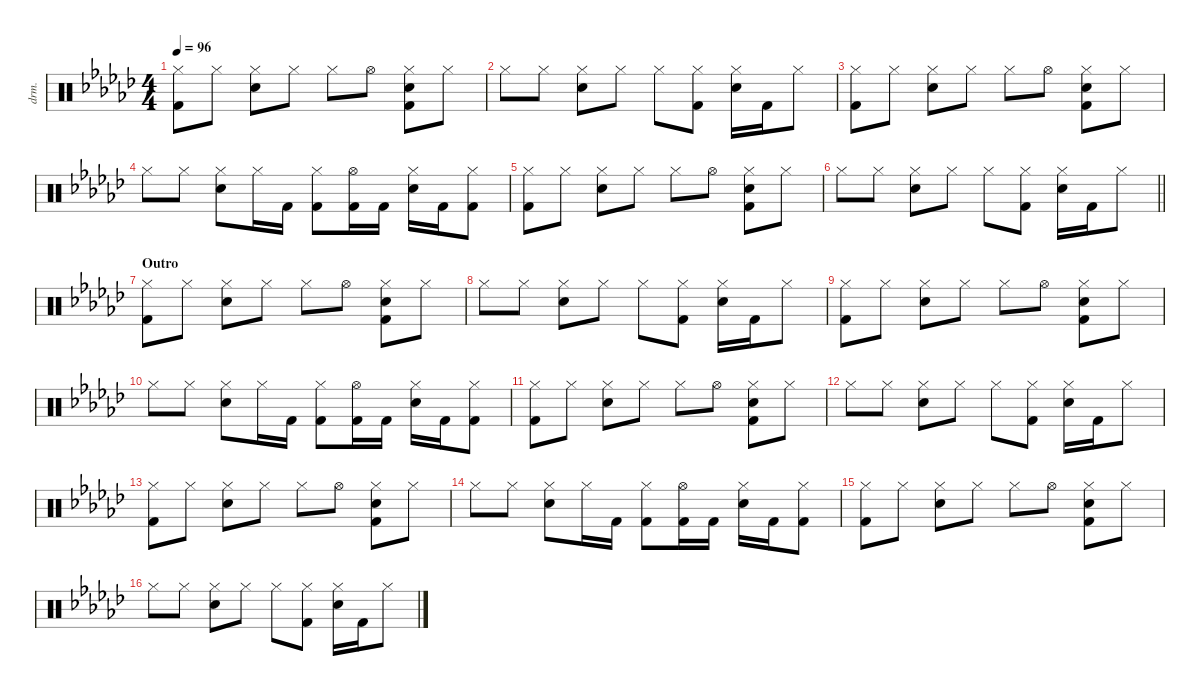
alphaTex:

\defaultSystemsLayout 4
\hideDynamics
\bracketExtendMode nobrackets
\otherSystemsTrackNameOrientation horizontal
\track ("Percussion" "drm.") {instrument percussion}
\staff {score}
\articulation defaults
\ts (4 4)
\tempo 96
\clef neutral
\ks gb
("Hi-Hat (closed)"{acc forcenatural} "Kick (hit) 2"{acc forcenatural}).8{dy f beam Down} "Hi-Hat (closed)"{acc forcenatural}.8{beam Down} ("Hi-Hat (closed)"{acc forcenatural} "Snare (hit) 2"{acc forcenatural}).8{beam Down} "Hi-Hat (closed)"{acc forcenatural}.8{beam Down} "Hi-Hat (closed)"{acc forcenatural}.8{beam Down} "Hi-Hat (open)"{acc forcenatural}.8{beam Down} ("Hi-Hat (closed)"{acc forcenatural} "Snare (hit) 2"{acc forcenatural} "Kick (hit) 2"{acc forcenatural}).8{beam Down} "Hi-Hat (closed)"{acc forcenatural}.8{beam Down} |
"Hi-Hat (closed)"{acc forcenatural}.8{beam Down} "Hi-Hat (closed)"{acc forcenatural}.8{beam Down} ("Hi-Hat (closed)"{acc forcenatural} "Snare (hit) 2"{acc forcenatural}).8{beam Down} "Hi-Hat (closed)"{acc forcenatural}.8{beam Down} "Hi-Hat (closed)"{acc forcenatural}.8{beam Down} ("Hi-Hat (closed)"{acc forcenatural} "Kick (hit) 2"{acc forcenatural}).8{beam Down} ("Hi-Hat (closed)"{acc forcenatural} "Snare (hit) 2"{acc forcenatural}).16{beam Down} "Kick (hit) 2"{acc forcenatural}.16{beam Down} "Hi-Hat (closed)"{acc forcenatural}.8{beam Down} |
("Hi-Hat (closed)"{acc forcenatural} "Kick (hit) 2"{acc forcenatural}).8{beam Down} "Hi-Hat (closed)"{acc forcenatural}.8{beam Down} ("Hi-Hat (closed)"{acc forcenatural} "Snare (hit) 2"{acc forcenatural}).8{beam Down} "Hi-Hat (closed)"{acc forcenatural}.8{beam Down} "Hi-Hat (closed)"{acc forcenatural}.8{beam Down} "Hi-Hat (open)"{acc forcenatural}.8{beam Down} ("Hi-Hat (closed)"{acc forcenatural} "Snare (hit) 2"{acc forcenatural} "Kick (hit) 2"{acc forcenatural}).8{beam Down} "Hi-Hat (closed)"{acc forcenatural}.8{beam Down} |
"Hi-Hat (closed)"{acc forcenatural}.8{beam Down} "Hi-Hat (closed)"{acc forcenatural}.8{beam Down} ("Hi-Hat (closed)"{acc forcenatural} "Snare (hit) 2"{acc forcenatural}).8{beam Down} "Hi-Hat (closed)"{acc forcenatural}.16{beam Down} "Kick (hit) 2"{acc forcenatural}.16{beam Down} ("Hi-Hat (closed)"{acc forcenatural} "Kick (hit) 2"{acc forcenatural}).8{beam Down} ("Hi-Hat (open)"{acc forcenatural} "Kick (hit) 2"{acc forcenatural}).16{beam Down} "Kick (hit) 2"{acc forcenatural}.16{beam Down} ("Hi-Hat (closed)"{acc forcenatural} "Snare (hit) 2"{acc forcenatural}).16{beam Down} "Kick (hit) 2"{acc forcenatural}.16{beam Down} ("Hi-Hat (closed)"{acc forcenatural} "Kick (hit) 2"{acc forcenatural}).8{beam Down} |
("Hi-Hat (closed)"{acc forcenatural} "Kick (hit) 2"{acc forcenatural}).8{beam Down} "Hi-Hat (closed)"{acc forcenatural}.8{beam Down} ("Hi-Hat (closed)"{acc forcenatural} "Snare (hit) 2"{acc forcenatural}).8{beam Down} "Hi-Hat (closed)"{acc forcenatural}.8{beam Down} "Hi-Hat (closed)"{acc forcenatural}.8{beam Down} "Hi-Hat (open)"{acc forcenatural}.8{beam Down} ("Hi-Hat (closed)"{acc forcenatural} "Snare (hit) 2"{acc forcenatural} "Kick (hit) 2"{acc forcenatural}).8{beam Down} "Hi-Hat (closed)"{acc forcenatural}.8{beam Down} |
\barLineRight lightlight "Hi-Hat (closed)"{acc forcenatural}.8{beam Down} "Hi-Hat (closed)"{acc forcenatural}.8{beam Down}
("Hi-Hat (closed)"{acc forcenatural} "Snare (hit) 2"{acc forcenatural}).8{beam Down} "Hi-Hat (closed)"{acc forcenatural}.8{beam Down} "Hi-Hat (closed)"{acc forcenatural}.8{beam Down} ("Hi-Hat (closed)"{acc forcenatural} "Kick (hit) 2"{acc forcenatural}).8{beam Down} ("Hi-Hat (closed)"{acc forcenatural} "Snare (hit) 2"{acc forcenatural}).16{beam Down} "Kick (hit) 2"{acc forcenatural}.16{beam Down} "Hi-Hat (closed)"{acc forcenatural}.8{beam Down} |
\section ("" "Outro")
("Hi-Hat (closed)"{acc forcenatural} "Kick (hit) 2"{acc forcenatural}).8{beam Down} "Hi-Hat (closed)"{acc forcenatural}.8{beam Down} ("Hi-Hat (closed)"{acc forcenatural} "Snare (hit) 2"{acc forcenatural}).8{beam Down} "Hi-Hat (closed)"{acc forcenatural}.8{beam Down} "Hi-Hat (closed)"{acc forcenatural}.8{beam Down} "Hi-Hat (open)"{acc forcenatural}.8{beam Down} ("Hi-Hat (closed)"{acc forcenatural} "Snare (hit) 2"{acc forcenatural} "Kick (hit) 2"{acc forcenatural}).8{beam Down} "Hi-Hat (closed)"{acc forcenatural}.8{beam Down} |
"Hi-Hat (closed)"{acc forcenatural}.8{beam Down} "Hi-Hat (closed)"{acc forcenatural}.8{beam Down} ("Hi-Hat (closed)"{acc forcenatural} "Snare (hit) 2"{acc forcenatural}).8{beam Down} "Hi-Hat (closed)"{acc forcenatural}.8{beam Down} "Hi-Hat (closed)"{acc forcenatural}.8{beam Down} ("Hi-Hat (closed)"{acc forcenatural} "Kick (hit) 2"{acc forcenatural}).8{beam Down} ("Hi-Hat (closed)"{acc forcenatural} "Snare (hit) 2"{acc forcenatural}).16{beam Down} "Kick (hit) 2"{acc forcenatural}.16{beam Down} "Hi-Hat (closed)"{acc forcenatural}.8{beam Down} |
("Hi-Hat (closed)"{acc forcenatural} "Kick (hit) 2"{acc forcenatural}).8{beam Down} "Hi-Hat (closed)"{acc forcenatural}.8{beam Down} ("Hi-Hat (closed)"{acc forcenatural} "Snare (hit) 2"{acc forcenatural}).8{beam Down} "Hi-Hat (closed)"{acc forcenatural}.8{beam Down} "Hi-Hat (closed)"{acc forcenatural}.8{beam Down} "Hi-Hat (open)"{acc forcenatural}.8{beam Down} ("Hi-Hat (closed)"{acc forcenatural} "Snare (hit) 2"{acc forcenatural} "Kick (hit) 2"{acc forcenatural}).8{beam Down} "Hi-Hat (closed)"{acc forcenatural}.8{beam Down} |
"Hi-Hat (closed)"{acc forcenatural}.8{beam Down} "Hi-Hat (closed)"{acc forcenatural}.8{beam Down} ("Hi-Hat (closed)"{acc forcenatural} "Snare (hit) 2"{acc forcenatural}).8{beam Down} "Hi-Hat (closed)"{acc forcenatural}.16{beam Down} "Kick (hit) 2"{acc forcenatural}.16{beam Down} ("Hi-Hat (closed)"{acc forcenatural} "Kick (hit) 2"{acc forcenatural}).8{beam Down} ("Hi-Hat (open)"{acc forcenatural} "Kick (hit) 2"{acc forcenatural}).16{beam Down} "Kick (hit) 2"{acc forcenatural}.16{beam Down} ("Hi-Hat (closed)"{acc forcenatural} "Snare (hit) 2"{acc forcenatural}).16{beam Down} "Kick (hit) 2"{acc forcenatural}.16{beam Down} ("Hi-Hat (closed)"{acc forcenatural} "Kick (hit) 2"{acc forcenatural}).8{beam Down} |
("Hi-Hat (closed)"{acc forcenatural} "Kick (hit) 2"{acc forcenatural}).8{beam Down} "Hi-Hat (closed)"{acc forcenatural}.8{beam Down} ("Hi-Hat (closed)"{acc forcenatural} "Snare (hit) 2"{acc forcenatural}).8{beam Down} "Hi-Hat (closed)"{acc forcenatural}.8{beam Down} "Hi-Hat (closed)"{acc forcenatural}.8{beam Down} "Hi-Hat (open)"{acc forcenatural}.8{beam Down} ("Hi-Hat (closed)"{acc forcenatural} "Snare (hit) 2"{acc forcenatural} "Kick (hit) 2"{acc forcenatural}).8{beam Down} "Hi-Hat (closed)"{acc forcenatural}.8{beam Down} |
"Hi-Hat (closed)"{acc forcenatural}.8{beam Down} "Hi-Hat (closed)"{acc forcenatural}.8{beam Down} ("Hi-Hat (closed)"{acc forcenatural} "Snare (hit) 2"{acc forcenatural}).8{beam Down} "Hi-Hat (closed)"{acc forcenatural}.8{beam Down} "Hi-Hat (closed)"{acc forcenatural}.8{beam Down} ("Hi-Hat (closed)"{acc forcenatural} "Kick (hit) 2"{acc forcenatural}).8{beam Down} ("Hi-Hat (closed)"{acc forcenatural} "Snare (hit) 2"{acc forcenatural}).16{beam Down} "Kick (hit) 2"{acc forcenatural}.16{beam Down} "Hi-Hat (closed)"{acc forcenatural}.8{beam Down} |
("Hi-Hat (closed)"{acc forcenatural} "Kick (hit) 2"{acc forcenatural}).8{beam Down} "Hi-Hat (closed)"{acc forcenatural}.8{beam Down} ("Hi-Hat (closed)"{acc forcenatural} "Snare (hit) 2"{acc forcenatural}).8{beam Down} "Hi-Hat (closed)"{acc forcenatural}.8{beam Down} "Hi-Hat (closed)"{acc forcenatural}.8{beam Down} "Hi-Hat (open)"{acc forcenatural}.8{beam Down} ("Hi-Hat (closed)"{acc forcenatural} "Snare (hit) 2"{acc forcenatural} "Kick (hit) 2"{acc forcenatural}).8{beam Down} "Hi-Hat (closed)"{acc forcenatural}.8{beam Down} |
"Hi-Hat (closed)"{acc forcenatural}.8{beam Down} "Hi-Hat (closed)"{acc forcenatural}.8{beam Down} ("Hi-Hat (closed)"{acc forcenatural} "Snare (hit) 2"{acc forcenatural}).8{beam Down} "Hi-Hat (closed)"{acc forcenatural}.16{beam Down} "Kick (hit) 2"{acc forcenatural}.16{beam Down} ("Hi-Hat (closed)"{acc forcenatural} "Kick (hit) 2"{acc forcenatural}).8{beam Down} ("Hi-Hat (open)"{acc forcenatural} "Kick (hit) 2"{acc forcenatural}).16{beam Down} "Kick (hit) 2"{acc forcenatural}.16{beam Down} ("Hi-Hat (closed)"{acc forcenatural} "Snare (hit) 2"{acc forcenatural}).16{beam Down} "Kick (hit) 2"{acc forcenatural}.16{beam Down} ("Hi-Hat (closed)"{acc forcenatural} "Kick (hit) 2"{acc forcenatural}).8{beam Down} |
("Hi-Hat (closed)"{acc forcenatural} "Kick (hit) 2"{acc forcenatural}).8{beam Down} "Hi-Hat (closed)"{acc forcenatural}.8{beam Down} ("Hi-Hat (closed)"{acc forcenatural} "Snare (hit) 2"{acc forcenatural}).8{beam Down} "Hi-Hat (closed)"{acc forcenatural}.8{beam Down} "Hi-Hat (closed)"{acc forcenatural}.8{beam Down} "Hi-Hat (open)"{acc forcenatural}.8{beam Down} ("Hi-Hat (closed)"{acc forcenatural} "Snare (hit) 2"{acc forcenatural} "Kick (hit) 2"{acc forcenatural}).8{beam Down} "Hi-Hat (closed)"{acc forcenatural}.8{beam Down} |
"Hi-Hat (closed)"{acc forcenatural}.8{beam Down} "Hi-Hat (closed)"{acc forcenatural}.8{beam Down} ("Hi-Hat (closed)"{acc forcenatural} "Snare (hit) 2"{acc forcenatural}).8{beam Down} "Hi-Hat (closed)"{acc forcenatural}.8{beam Down} "Hi-Hat (closed)"{acc forcenatural}.8{beam Down} ("Hi-Hat (closed)"{acc forcenatural} "Kick (hit) 2"{acc forcenatural}).8{beam Down} ("Hi-Hat (closed)"{acc forcenatural} "Snare (hit) 2"{acc forcenatural}).16{beam Down} "Kick (hit) 2"{acc forcenatural}.16{beam Down} "Hi-Hat (closed)"{acc forcenatural}.8{beam Down}
